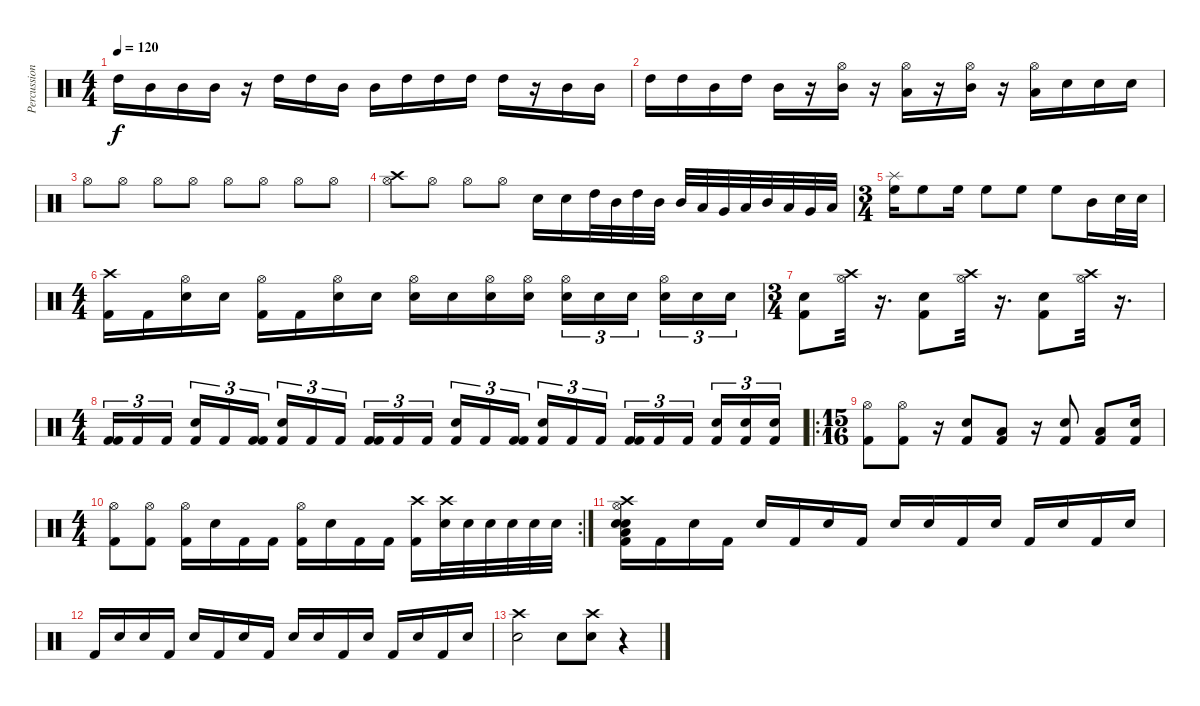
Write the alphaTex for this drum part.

\track ("Percussion" "Percussion") {instrument percussion}
\staff {score}
\articulation defaults
\ts (4 4)
\tempo 120
\clef neutral
\ks c "High Tom (hit)".16{dy f} "Mid Tom (hit)".16 "Mid Tom (hit)".16 "Mid Tom (hit)".16
r.16 "High Tom (hit)".16 "High Tom (hit)".16 "Mid Tom (hit)".16 "Mid Tom (hit)".16 "High Tom (hit)".16 "High Tom (hit)".16 "High Tom (hit)".16 "High Tom (hit)".16 r.16 "Mid Tom (hit)".16 "Mid Tom (hit)".16 |
"High Tom (hit)".16 "High Tom (hit)".16 "Mid Tom (hit)".16 "High Tom (hit)".16 "Mid Tom (hit)".16 r.16 ("Hi-Hat (open)" "Mid Tom (hit)").16 r.16 ("Hi-Hat (open)" "Low Tom (hit)").16 r.16 ("Hi-Hat (open)" "Mid Tom (hit)").16 r.16 ("Hi-Hat (open)" "Low Tom (hit)").16 "Electric Snare (hit)".16 "Electric Snare (hit)".16 "Electric Snare (hit)".16 |
"Hi-Hat (open)".8 "Hi-Hat (open)".8 "Hi-Hat (open)".8 "Hi-Hat (open)".8 "Hi-Hat (open)".8 "Hi-Hat (open)".8 "Hi-Hat (open)".8 "Hi-Hat (open)".8 |
("Crash high (hit)" "Hi-Hat (open)").8 "Hi-Hat (open)".8 "Hi-Hat (open)".8 "Hi-Hat (open)".8 "Electric Snare (hit)".16 "Electric Snare (hit)".16 "High Tom (hit)".32 "Mid Tom (hit)".32 "High Tom (hit)".32 "Mid Tom (hit)".32 "Mid Tom (hit)".32 "Low Tom (hit)".32 "Very Low Tom (hit)".32 "Low Floor Tom (hit)".32 "Mid Tom (hit)".32 "Low Tom (hit)".32 "Very Low Tom (hit)".32 "Low Floor Tom (hit)".32 |
\ts (3 4)
("Splash (hit)" "High Floor Tom (hit)").16 "High Floor Tom (hit)".8 "High Floor Tom (hit)".16 "High Floor Tom (hit)".8 "High Floor Tom (hit)".8 "High Floor Tom (hit)".8 "Mid Tom (hit)".16 "Electric Snare (hit)".32 "Electric Snare (hit)".32 |
\ts (4 4)
("Crash high (hit)" "Kick (hit) 2").16 "Kick (hit) 2".16 ("Hi-Hat (open)" "Electric Snare (hit)").16 "Electric Snare (hit)".16 ("Hi-Hat (open)" "Kick (hit) 2").16 "Kick (hit) 2".16 ("Hi-Hat (open)" "Electric Snare (hit)").16 "Electric Snare (hit)".16 ("Hi-Hat (open)" "Electric Snare (hit)").16 "Electric Snare (hit)".16 ("Hi-Hat (open)" "Electric Snare (hit)").16 ("Hi-Hat (open)" "Electric Snare (hit)").16 ("Hi-Hat (open)" "Electric Snare (hit)").16{tu (3 2)} "Electric Snare (hit)".16{tu (3 2)} "Electric Snare (hit)".16{tu (3 2)} ("Hi-Hat (open)" "Electric Snare (hit)").16{tu (3 2)} "Electric Snare (hit)".16{tu (3 2)} "Electric Snare (hit)".16{tu (3 2)} |
\ts (3 4)
("Kick (hit) 2" "Electric Snare (hit)").8 ("Hi-Hat (open)" "Crash high (hit)").32 r.16{d} ("Kick (hit) 2" "Electric Snare (hit)").8 ("Hi-Hat (open)" "Crash high (hit)").32 r.16{d} ("Kick (hit) 2" "Electric Snare (hit)").8 ("Hi-Hat (open)" "Crash high (hit)").32 r.16{d} |
\ts (4 4)
("Kick (hit) 2" "Kick (hit) 2").16{tu (3 2)} "Kick (hit) 2".16{tu (3 2)} "Kick (hit) 2".16{tu (3 2)} ("Electric Snare (hit)" "Kick (hit) 2").16{tu (3 2)} "Kick (hit) 2".16{tu (3 2)} ("Kick (hit) 2" "Kick (hit) 2").16{tu (3 2)} ("Electric Snare (hit)" "Kick (hit) 2").16{tu (3 2)} "Kick (hit) 2".16{tu (3 2)} "Kick (hit) 2".16{tu (3 2)} ("Kick (hit) 2" "Kick (hit) 2").16{tu (3 2)} "Kick (hit) 2".16{tu (3 2)} "Kick (hit) 2".16{tu (3 2)} ("Electric Snare (hit)" "Kick (hit) 2").16{tu (3 2)} "Kick (hit) 2".16{tu (3 2)} ("Kick (hit) 2" "Kick (hit) 2").16{tu (3 2)} ("Electric Snare (hit)" "Kick (hit) 2").16{tu (3 2)} "Kick (hit) 2".16{tu (3 2)} "Kick (hit) 2".16{tu (3 2)} ("Kick (hit) 2" "Kick (hit) 2").16{tu (3 2)} "Kick (hit) 2".16{tu (3 2)} "Kick (hit) 2".16{tu (3 2)} ("Electric Snare (hit)" "Kick (hit) 2").16{tu (3 2)} ("Electric Snare (hit)" "Kick (hit) 2").16{tu (3 2)} ("Electric Snare (hit)" "Kick (hit) 2").16{tu (3 2)} |
\ro
\ts (15 16)
("Hi-Hat (open)" "Kick (hit) 2").8 ("Hi-Hat (open)" "Kick (hit) 2").8 r.16 ("Electric Snare (hit)" "Kick (hit) 2").8 ("Low Floor Tom (hit)" "Kick (hit) 2").8 r.16 ("Electric Snare (hit)" "Kick (hit) 2").8 ("Low Floor Tom (hit)" "Kick (hit) 2").8 ("Electric Snare (hit)" "Kick (hit) 2").16 |
\rc 2
\ts (4 4)
("Hi-Hat (open)" "Kick (hit) 2").8 ("Hi-Hat (open)" "Kick (hit) 2").8 ("Hi-Hat (open)" "Kick (hit) 2").16 "Electric Snare (hit)".16 "Kick (hit) 2".16 "Kick (hit) 2".16 ("Hi-Hat (open)" "Kick (hit) 2").16 "Electric Snare (hit)".16 "Kick (hit) 2".16 "Kick (hit) 2".16 ("Crash high (hit)" "Kick (hit) 2").16 ("Crash high (hit)" "Electric Snare (hit)").32 "Electric Snare (hit)".32 "Electric Snare (hit)".32 "Electric Snare (hit)".32 "Electric Snare (hit)".32 "Electric Snare (hit)".32 |
("Kick (hit) 2" "Electric Snare (hit)" "Snare (hit) 2" "Hi-Hat (open)" "Crash high (hit)" "Low Floor Tom (hit)").16 "Kick (hit) 2".16 "Electric Snare (hit)".16 "Kick (hit) 2".16 "Electric Snare (hit)".16 "Kick (hit) 2".16 "Electric Snare (hit)".16 "Kick (hit) 2".16 "Electric Snare (hit)".16 "Electric Snare (hit)".16 "Kick (hit) 2".16 "Electric Snare (hit)".16 "Kick (hit) 2".16 "Electric Snare (hit)".16 "Kick (hit) 2".16 "Electric Snare (hit)".16 |
"Kick (hit) 2".16 "Electric Snare (hit)".16 "Electric Snare (hit)".16 "Kick (hit) 2".16 "Electric Snare (hit)".16 "Kick (hit) 2".16 "Electric Snare (hit)".16 "Kick (hit) 2".16 "Electric Snare (hit)".16 "Electric Snare (hit)".16 "Kick (hit) 2".16 "Electric Snare (hit)".16 "Kick (hit) 2".16 "Electric Snare (hit)".16 "Kick (hit) 2".16 "Electric Snare (hit)".16 |
("Crash high (hit)" "Electric Snare (hit)").2 "Electric Snare (hit)".8 ("Crash high (hit)" "Electric Snare (hit)").8 r.4
